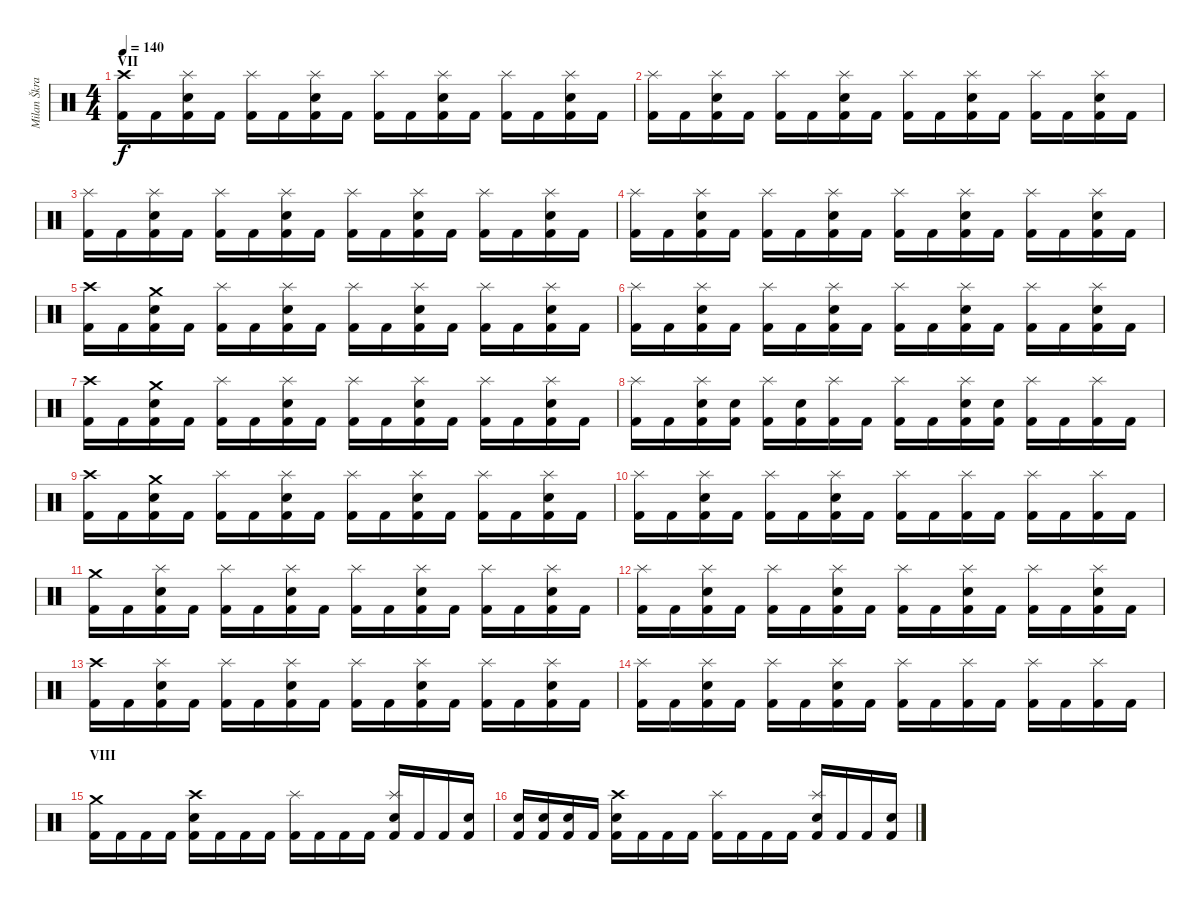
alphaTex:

\track ("Milan Škrabal" "Milan Škra") {instrument percussion}
\staff {score}
\articulation defaults
\ts (4 4)
\section ("" "VII")
\tempo 140
\clef neutral
\ks c
("Crash high (hit)" "Kick (hit) 2").16{dy f} "Kick (hit) 2".16 ("Splash (hit)" "Electric Snare (hit)" "Kick (hit) 2").16 "Kick (hit) 2".16 ("Splash (hit)" "Kick (hit) 2").16 "Kick (hit) 2".16 ("Splash (hit)" "Electric Snare (hit)" "Kick (hit) 2").16 "Kick (hit) 2".16 ("Splash (hit)" "Kick (hit) 2").16 "Kick (hit) 2".16 ("Splash (hit)" "Electric Snare (hit)" "Kick (hit) 2").16 "Kick (hit) 2".16 ("Splash (hit)" "Kick (hit) 2").16 "Kick (hit) 2".16 ("Splash (hit)" "Electric Snare (hit)" "Kick (hit) 2").16 "Kick (hit) 2".16 |
("Splash (hit)" "Kick (hit) 2").16 "Kick (hit) 2".16 ("Splash (hit)" "Electric Snare (hit)" "Kick (hit) 2").16 "Kick (hit) 2".16 ("Splash (hit)" "Kick (hit) 2").16 "Kick (hit) 2".16 ("Splash (hit)" "Electric Snare (hit)" "Kick (hit) 2").16 "Kick (hit) 2".16 ("Splash (hit)" "Kick (hit) 2").16 "Kick (hit) 2".16 ("Splash (hit)" "Electric Snare (hit)" "Kick (hit) 2").16 "Kick (hit) 2".16 ("Splash (hit)" "Kick (hit) 2").16 "Kick (hit) 2".16 ("Splash (hit)" "Electric Snare (hit)" "Kick (hit) 2").16 "Kick (hit) 2".16 |
("Splash (hit)" "Kick (hit) 2").16 "Kick (hit) 2".16 ("Splash (hit)" "Electric Snare (hit)" "Kick (hit) 2").16 "Kick (hit) 2".16 ("Splash (hit)" "Kick (hit) 2").16 "Kick (hit) 2".16 ("Splash (hit)" "Electric Snare (hit)" "Kick (hit) 2").16 "Kick (hit) 2".16 ("Splash (hit)" "Kick (hit) 2").16 "Kick (hit) 2".16 ("Splash (hit)" "Electric Snare (hit)" "Kick (hit) 2").16 "Kick (hit) 2".16 ("Splash (hit)" "Kick (hit) 2").16 "Kick (hit) 2".16 ("Splash (hit)" "Electric Snare (hit)" "Kick (hit) 2").16 "Kick (hit) 2".16 |
("Splash (hit)" "Kick (hit) 2").16 "Kick (hit) 2".16 ("Splash (hit)" "Electric Snare (hit)" "Kick (hit) 2").16 "Kick (hit) 2".16 ("Splash (hit)" "Kick (hit) 2").16 "Kick (hit) 2".16 ("Splash (hit)" "Electric Snare (hit)" "Kick (hit) 2").16 "Kick (hit) 2".16 ("Splash (hit)" "Kick (hit) 2").16 "Kick (hit) 2".16 ("Splash (hit)" "Electric Snare (hit)" "Kick (hit) 2").16 "Kick (hit) 2".16 ("Splash (hit)" "Kick (hit) 2").16 "Kick (hit) 2".16 ("Splash (hit)" "Electric Snare (hit)" "Kick (hit) 2").16 "Kick (hit) 2".16 |
("Crash high (hit)" "Kick (hit) 2").16 "Kick (hit) 2".16 ("Crash medium (hit)" "Electric Snare (hit)" "Kick (hit) 2").16 "Kick (hit) 2".16 ("Splash (hit)" "Kick (hit) 2").16 "Kick (hit) 2".16 ("Splash (hit)" "Electric Snare (hit)" "Kick (hit) 2").16 "Kick (hit) 2".16 ("Splash (hit)" "Kick (hit) 2").16 "Kick (hit) 2".16 ("Splash (hit)" "Electric Snare (hit)" "Kick (hit) 2").16 "Kick (hit) 2".16 ("Splash (hit)" "Kick (hit) 2").16 "Kick (hit) 2".16 ("Splash (hit)" "Electric Snare (hit)" "Kick (hit) 2").16 "Kick (hit) 2".16 |
("Splash (hit)" "Kick (hit) 2").16 "Kick (hit) 2".16 ("Splash (hit)" "Electric Snare (hit)" "Kick (hit) 2").16 "Kick (hit) 2".16 ("Splash (hit)" "Kick (hit) 2").16 "Kick (hit) 2".16 ("Splash (hit)" "Electric Snare (hit)" "Kick (hit) 2").16 "Kick (hit) 2".16 ("Splash (hit)" "Kick (hit) 2").16 "Kick (hit) 2".16 ("Splash (hit)" "Electric Snare (hit)" "Kick (hit) 2").16 "Kick (hit) 2".16 ("Splash (hit)" "Kick (hit) 2").16 "Kick (hit) 2".16 ("Splash (hit)" "Electric Snare (hit)" "Kick (hit) 2").16 "Kick (hit) 2".16 |
("Crash high (hit)" "Kick (hit) 2").16 "Kick (hit) 2".16 ("Crash medium (hit)" "Electric Snare (hit)" "Kick (hit) 2").16 "Kick (hit) 2".16 ("Splash (hit)" "Kick (hit) 2").16 "Kick (hit) 2".16 ("Splash (hit)" "Electric Snare (hit)" "Kick (hit) 2").16 "Kick (hit) 2".16 ("Splash (hit)" "Kick (hit) 2").16 "Kick (hit) 2".16 ("Splash (hit)" "Electric Snare (hit)" "Kick (hit) 2").16 "Kick (hit) 2".16 ("Splash (hit)" "Kick (hit) 2").16 "Kick (hit) 2".16 ("Splash (hit)" "Electric Snare (hit)" "Kick (hit) 2").16 "Kick (hit) 2".16 |
("Splash (hit)" "Kick (hit) 2").16 "Kick (hit) 2".16 ("Splash (hit)" "Electric Snare (hit)" "Kick (hit) 2").16 ("Electric Snare (hit)" "Kick (hit) 2").16 ("Splash (hit)" "Kick (hit) 2").16 ("Electric Snare (hit)" "Kick (hit) 2").16 ("Splash (hit)" "Kick (hit) 2").16 "Kick (hit) 2".16 ("Splash (hit)" "Kick (hit) 2").16 "Kick (hit) 2".16 ("Splash (hit)" "Electric Snare (hit)" "Kick (hit) 2").16 ("Electric Snare (hit)" "Kick (hit) 2").16 ("Splash (hit)" "Kick (hit) 2").16 "Kick (hit) 2".16 ("Splash (hit)" "Kick (hit) 2").16 "Kick (hit) 2".16 |
("Crash high (hit)" "Kick (hit) 2").16 "Kick (hit) 2".16 ("Crash medium (hit)" "Electric Snare (hit)" "Kick (hit) 2").16 "Kick (hit) 2".16 ("Splash (hit)" "Kick (hit) 2").16 "Kick (hit) 2".16 ("Splash (hit)" "Electric Snare (hit)" "Kick (hit) 2").16 "Kick (hit) 2".16 ("Splash (hit)" "Kick (hit) 2").16 "Kick (hit) 2".16 ("Splash (hit)" "Electric Snare (hit)" "Kick (hit) 2").16 "Kick (hit) 2".16 ("Splash (hit)" "Kick (hit) 2").16 "Kick (hit) 2".16 ("Splash (hit)" "Electric Snare (hit)" "Kick (hit) 2").16 "Kick (hit) 2".16 |
("Splash (hit)" "Kick (hit) 2").16 "Kick (hit) 2".16 ("Splash (hit)" "Electric Snare (hit)" "Kick (hit) 2").16 "Kick (hit) 2".16 ("Splash (hit)" "Kick (hit) 2").16 "Kick (hit) 2".16 ("Splash (hit)" "Electric Snare (hit)" "Kick (hit) 2").16 "Kick (hit) 2".16 ("Splash (hit)" "Kick (hit) 2").16 "Kick (hit) 2".16 ("Splash (hit)" "Kick (hit) 2").16 "Kick (hit) 2".16 ("Splash (hit)" "Kick (hit) 2").16 "Kick (hit) 2".16 ("Splash (hit)" "Kick (hit) 2").16 "Kick (hit) 2".16 |
("Crash medium (hit)" "Kick (hit) 2").16 "Kick (hit) 2".16 ("Splash (hit)" "Electric Snare (hit)" "Kick (hit) 2").16 "Kick (hit) 2".16 ("Splash (hit)" "Kick (hit) 2").16 "Kick (hit) 2".16 ("Splash (hit)" "Electric Snare (hit)" "Kick (hit) 2").16 "Kick (hit) 2".16 ("Splash (hit)" "Kick (hit) 2").16 "Kick (hit) 2".16 ("Splash (hit)" "Electric Snare (hit)" "Kick (hit) 2").16 "Kick (hit) 2".16 ("Splash (hit)" "Kick (hit) 2").16 "Kick (hit) 2".16 ("Splash (hit)" "Electric Snare (hit)" "Kick (hit) 2").16 "Kick (hit) 2".16 |
("Splash (hit)" "Kick (hit) 2").16 "Kick (hit) 2".16 ("Splash (hit)" "Electric Snare (hit)" "Kick (hit) 2").16 "Kick (hit) 2".16 ("Splash (hit)" "Kick (hit) 2").16 "Kick (hit) 2".16 ("Splash (hit)" "Electric Snare (hit)" "Kick (hit) 2").16 "Kick (hit) 2".16 ("Splash (hit)" "Kick (hit) 2").16 "Kick (hit) 2".16 ("Splash (hit)" "Electric Snare (hit)" "Kick (hit) 2").16 "Kick (hit) 2".16 ("Splash (hit)" "Kick (hit) 2").16 "Kick (hit) 2".16 ("Splash (hit)" "Electric Snare (hit)" "Kick (hit) 2").16 "Kick (hit) 2".16 |
("Crash high (hit)" "Kick (hit) 2").16 "Kick (hit) 2".16 ("Splash (hit)" "Electric Snare (hit)" "Kick (hit) 2").16 "Kick (hit) 2".16 ("Splash (hit)" "Kick (hit) 2").16 "Kick (hit) 2".16 ("Splash (hit)" "Electric Snare (hit)" "Kick (hit) 2").16 "Kick (hit) 2".16 ("Splash (hit)" "Kick (hit) 2").16 "Kick (hit) 2".16 ("Splash (hit)" "Electric Snare (hit)" "Kick (hit) 2").16 "Kick (hit) 2".16 ("Splash (hit)" "Kick (hit) 2").16 "Kick (hit) 2".16 ("Splash (hit)" "Electric Snare (hit)" "Kick (hit) 2").16 "Kick (hit) 2".16 |
("Splash (hit)" "Kick (hit) 2").16 "Kick (hit) 2".16 ("Splash (hit)" "Electric Snare (hit)" "Kick (hit) 2").16 "Kick (hit) 2".16 ("Splash (hit)" "Kick (hit) 2").16 "Kick (hit) 2".16 ("Splash (hit)" "Electric Snare (hit)" "Kick (hit) 2").16 "Kick (hit) 2".16 ("Splash (hit)" "Kick (hit) 2").16 "Kick (hit) 2".16 ("Splash (hit)" "Kick (hit) 2").16 "Kick (hit) 2".16 ("Splash (hit)" "Kick (hit) 2").16 "Kick (hit) 2".16 ("Splash (hit)" "Kick (hit) 2").16 "Kick (hit) 2".16 |
\section ("" "VIII")
("Crash medium (hit)" "Kick (hit) 2").16 "Kick (hit) 2".16 "Kick (hit) 2".16 "Kick (hit) 2".16 ("Crash high (hit)" "Electric Snare (hit)" "Kick (hit) 2").16 "Kick (hit) 2".16 "Kick (hit) 2".16 "Kick (hit) 2".16 ("Splash (hit)" "Kick (hit) 2").16 "Kick (hit) 2".16 "Kick (hit) 2".16 "Kick (hit) 2".16 ("Splash (hit)" "Electric Snare (hit)" "Kick (hit) 2").16 "Kick (hit) 2".16 "Kick (hit) 2".16 ("Electric Snare (hit)" "Kick (hit) 2").16 |
("Electric Snare (hit)" "Kick (hit) 2").16 ("Electric Snare (hit)" "Kick (hit) 2").16 ("Electric Snare (hit)" "Kick (hit) 2").16 "Kick (hit) 2".16 ("Crash high (hit)" "Electric Snare (hit)" "Kick (hit) 2").16 "Kick (hit) 2".16 "Kick (hit) 2".16 "Kick (hit) 2".16 ("Splash (hit)" "Kick (hit) 2").16 "Kick (hit) 2".16 "Kick (hit) 2".16 "Kick (hit) 2".16 ("Splash (hit)" "Electric Snare (hit)" "Kick (hit) 2").16 "Kick (hit) 2".16 "Kick (hit) 2".16 ("Electric Snare (hit)" "Kick (hit) 2").16
